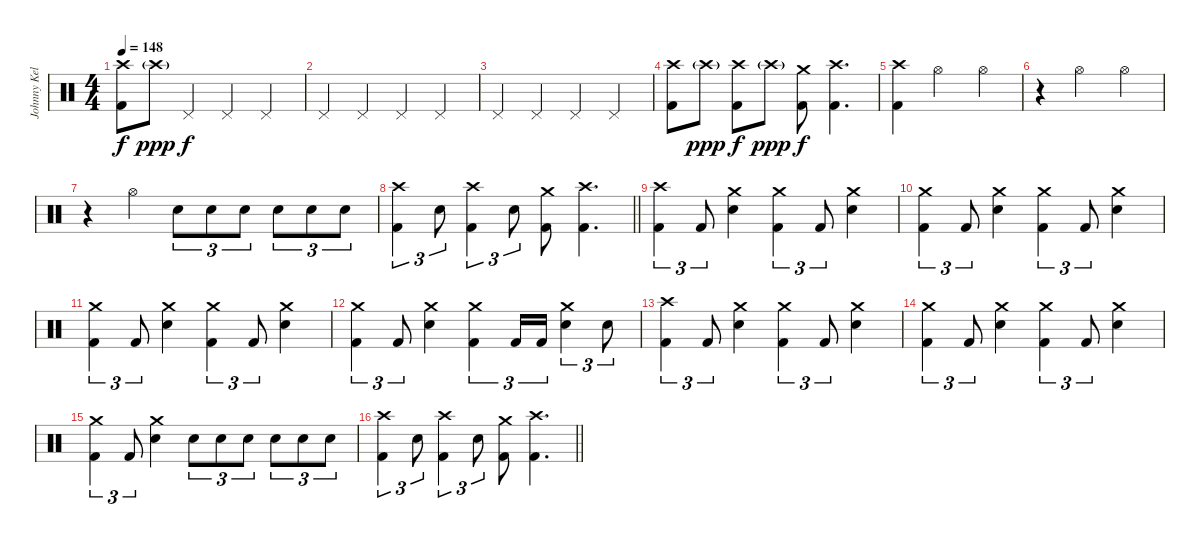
\track ("Johnny Kelly" "Johnny Kel") {instrument percussion}
\staff {score}
\articulation defaults
\ts (4 4)
\section ("" "")
\tempo 148
\clef neutral
\ks c
("Crash high (hit)" "Kick (hit) 2").8{dy f} "Crash high (hit)"{g}.8{dy ppp} "Pedal Hi-Hat (hit)".4{dy f} "Pedal Hi-Hat (hit)".4 "Pedal Hi-Hat (hit)".4 |
"Pedal Hi-Hat (hit)".4 "Pedal Hi-Hat (hit)".4 "Pedal Hi-Hat (hit)".4 "Pedal Hi-Hat (hit)".4 |
"Pedal Hi-Hat (hit)".4 "Pedal Hi-Hat (hit)".4 "Pedal Hi-Hat (hit)".4 "Pedal Hi-Hat (hit)".4 |
("Crash high (hit)" "Kick (hit) 2").8 "Crash high (hit)"{g}.8{dy ppp} ("Crash high (hit)" "Kick (hit) 2").8{dy f} "Crash high (hit)"{g}.8{dy ppp} ("Crash medium (hit)" "Kick (hit) 2").8{dy f} ("Crash high (hit)" "Kick (hit) 2").4{d} |
("Crash high (hit)" "Kick (hit) 2").4 "Hi-Hat (open)".2 "Hi-Hat (open)".4 |
r.4 "Hi-Hat (open)".2 "Hi-Hat (open)".4 |
r.4 "Hi-Hat (open)".4 "Electric Snare (hit)".8{tu (3 2)} "Electric Snare (hit)".8{tu (3 2)} "Electric Snare (hit)".8{tu (3 2)} "Electric Snare (hit)".8{tu (3 2)} "Electric Snare (hit)".8{tu (3 2)} "Electric Snare (hit)".8{tu (3 2)} |
\barLineRight lightlight
("Crash high (hit)" "Kick (hit) 2").4{tu (3 2)} "Electric Snare (hit)".8{tu (3 2)} ("Crash high (hit)" "Kick (hit) 2").4{tu (3 2)} "Electric Snare (hit)".8{tu (3 2)} ("Crash medium (hit)" "Kick (hit) 2").8 ("Crash high (hit)" "Kick (hit) 2").4{d} |
\section ("" "")
("Crash high (hit)" "Kick (hit) 2").4{tu (3 2)} "Kick (hit) 2".8{tu (3 2)} ("Crash medium (hit)" "Electric Snare (hit)").4 ("Crash medium (hit)" "Kick (hit) 2").4{tu (3 2)} "Kick (hit) 2".8{tu (3 2)} ("Crash medium (hit)" "Electric Snare (hit)").4 |
("Crash medium (hit)" "Kick (hit) 2").4{tu (3 2)} "Kick (hit) 2".8{tu (3 2)} ("Crash medium (hit)" "Electric Snare (hit)").4 ("Crash medium (hit)" "Kick (hit) 2").4{tu (3 2)} "Kick (hit) 2".8{tu (3 2)} ("Crash medium (hit)" "Electric Snare (hit)").4 |
("Crash medium (hit)" "Kick (hit) 2").4{tu (3 2)} "Kick (hit) 2".8{tu (3 2)} ("Crash medium (hit)" "Electric Snare (hit)").4 ("Crash medium (hit)" "Kick (hit) 2").4{tu (3 2)} "Kick (hit) 2".8{tu (3 2)} ("Crash medium (hit)" "Electric Snare (hit)").4 |
("Crash medium (hit)" "Kick (hit) 2").4{tu (3 2)} "Kick (hit) 2".8{tu (3 2)} ("Crash medium (hit)" "Electric Snare (hit)").4 ("Crash medium (hit)" "Kick (hit) 2").4{tu (3 2)} "Kick (hit) 2".16{tu (3 2)} "Kick (hit) 2".16{tu (3 2)} ("Crash medium (hit)" "Electric Snare (hit)").4{tu (3 2)} "Electric Snare (hit)".8{tu (3 2)} |
("Crash high (hit)" "Kick (hit) 2").4{tu (3 2)} "Kick (hit) 2".8{tu (3 2)} ("Crash medium (hit)" "Electric Snare (hit)").4 ("Crash medium (hit)" "Kick (hit) 2").4{tu (3 2)} "Kick (hit) 2".8{tu (3 2)} ("Crash medium (hit)" "Electric Snare (hit)").4 |
("Crash medium (hit)" "Kick (hit) 2").4{tu (3 2)} "Kick (hit) 2".8{tu (3 2)} ("Crash medium (hit)" "Electric Snare (hit)").4 ("Crash medium (hit)" "Kick (hit) 2").4{tu (3 2)} "Kick (hit) 2".8{tu (3 2)} ("Crash medium (hit)" "Electric Snare (hit)").4 |
("Crash medium (hit)" "Kick (hit) 2").4{tu (3 2)} "Kick (hit) 2".8{tu (3 2)} ("Crash medium (hit)" "Electric Snare (hit)").4 "Electric Snare (hit)".8{tu (3 2)} "Electric Snare (hit)".8{tu (3 2)} "Electric Snare (hit)".8{tu (3 2)} "Electric Snare (hit)".8{tu (3 2)} "Electric Snare (hit)".8{tu (3 2)} "Electric Snare (hit)".8{tu (3 2)} |
\barLineRight lightlight
("Crash high (hit)" "Kick (hit) 2").4{tu (3 2)} "Electric Snare (hit)".8{tu (3 2)} ("Crash high (hit)" "Kick (hit) 2").4{tu (3 2)} "Electric Snare (hit)".8{tu (3 2)} ("Crash medium (hit)" "Kick (hit) 2").8 ("Crash high (hit)" "Kick (hit) 2").4{d}
